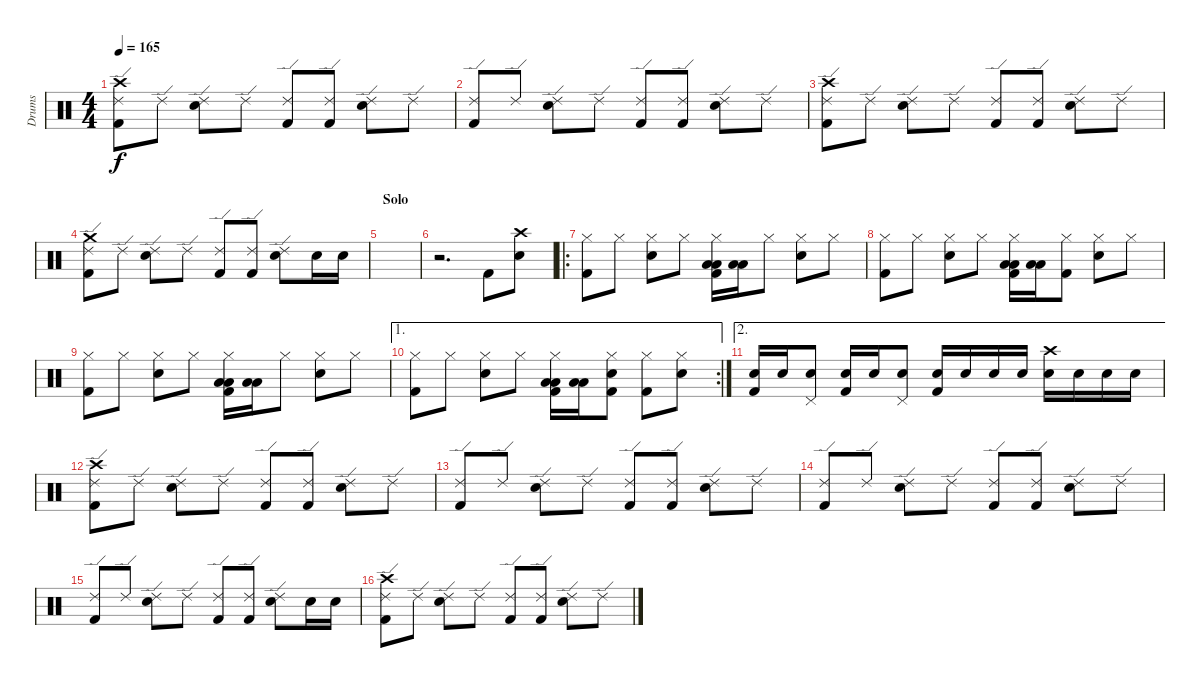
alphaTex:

\track ("Drums" "Drums") {instrument percussion}
\staff {score}
\articulation defaults
\ts (4 4)
\tempo 165
\clef neutral
\ks c
("Crash high (hit)" "Ride (edge) 2" "Kick (hit) 2").8{dy f} "Ride (edge) 2".8 ("Ride (edge) 2" "Snare (hit) 2").8 "Ride (edge) 2".8 ("Ride (edge) 2" "Kick (hit) 2").8 ("Ride (edge) 2" "Kick (hit) 2").8 ("Ride (edge) 2" "Snare (hit) 2").8 "Ride (edge) 2".8 |
("Ride (edge) 2" "Kick (hit) 2").8 "Ride (edge) 2".8 ("Ride (edge) 2" "Snare (hit) 2").8 "Ride (edge) 2".8 ("Ride (edge) 2" "Kick (hit) 2").8 ("Ride (edge) 2" "Kick (hit) 2").8 ("Ride (edge) 2" "Snare (hit) 2").8 "Ride (edge) 2".8 |
("Crash high (hit)" "Ride (edge) 2" "Kick (hit) 2").8 "Ride (edge) 2".8 ("Ride (edge) 2" "Snare (hit) 2").8 "Ride (edge) 2".8 ("Ride (edge) 2" "Kick (hit) 2").8 ("Ride (edge) 2" "Kick (hit) 2").8 ("Ride (edge) 2" "Snare (hit) 2").8 "Ride (edge) 2".8 |
("Crash medium (hit)" "Ride (edge) 2" "Kick (hit) 2").8 "Ride (edge) 2".8 ("Ride (edge) 2" "Snare (hit) 2").8 "Ride (edge) 2".8 ("Ride (edge) 2" "Kick (hit) 2").8 ("Ride (edge) 2" "Kick (hit) 2").8 ("Ride (edge) 2" "Snare (hit) 2").8 "Snare (hit) 2".16 "Snare (hit) 2".16 |
\section ("" "Solo ")
|
r.2{d} "Kick (hit) 2".8 ("Crash high (hit)" "Snare (hit) 2").8 |
\ro
("Hi-Hat (closed)" "Kick (hit) 2").8 "Hi-Hat (closed)".8 ("Hi-Hat (closed)" "Snare (hit) 2").8 "Hi-Hat (closed)".8 ("Hi-Hat (closed)" "Low Tom (hit)" "Low Tom (hit)" "Kick (hit) 2").16 ("Low Tom (hit)" "Low Tom (hit)").16 "Hi-Hat (closed)".8 ("Hi-Hat (closed)" "Snare (hit) 2").8 "Hi-Hat (closed)".8 |
("Hi-Hat (closed)" "Kick (hit) 2").8 "Hi-Hat (closed)".8 ("Hi-Hat (closed)" "Snare (hit) 2").8 "Hi-Hat (closed)".8 ("Hi-Hat (closed)" "Low Tom (hit)" "Low Tom (hit)" "Kick (hit) 2").16 ("Low Tom (hit)" "Low Tom (hit)").16 ("Hi-Hat (closed)" "Kick (hit) 2").8 ("Hi-Hat (closed)" "Snare (hit) 2").8 "Hi-Hat (closed)".8 |
("Hi-Hat (closed)" "Kick (hit) 2").8 "Hi-Hat (closed)".8 ("Hi-Hat (closed)" "Snare (hit) 2").8 "Hi-Hat (closed)".8 ("Hi-Hat (closed)" "Low Tom (hit)" "Low Tom (hit)" "Kick (hit) 2").16 ("Low Tom (hit)" "Low Tom (hit)").16 "Hi-Hat (closed)".8 ("Hi-Hat (closed)" "Snare (hit) 2").8 "Hi-Hat (closed)".8 |
\ae 1
\rc 2
("Hi-Hat (closed)" "Kick (hit) 2").8 "Hi-Hat (closed)".8 ("Hi-Hat (closed)" "Snare (hit) 2").8 "Hi-Hat (closed)".8 ("Hi-Hat (closed)" "Low Tom (hit)" "Low Tom (hit)" "Kick (hit) 2").16 ("Low Tom (hit)" "Low Tom (hit)").16 ("Hi-Hat (closed)" "Snare (hit) 2" "Kick (hit) 2").8 ("Hi-Hat (closed)" "Kick (hit) 2").8 ("Hi-Hat (closed)" "Snare (hit) 2").8 |
\ae 2
("Snare (hit) 2" "Kick (hit) 2").16 "Snare (hit) 2".16 ("Pedal Hi-Hat (hit)" "Snare (hit) 2").8 ("Snare (hit) 2" "Kick (hit) 2").16 "Snare (hit) 2".16 ("Pedal Hi-Hat (hit)" "Snare (hit) 2").8 ("Snare (hit) 2" "Kick (hit) 2").16 "Snare (hit) 2".16 "Snare (hit) 2".16 "Snare (hit) 2".16 ("Crash high (hit)" "Snare (hit) 2").16 "Snare (hit) 2".16 "Snare (hit) 2".16 "Snare (hit) 2".16 |
("Crash high (hit)" "Ride (edge) 2" "Kick (hit) 2").8 "Ride (edge) 2".8 ("Ride (edge) 2" "Snare (hit) 2").8 "Ride (edge) 2".8 ("Ride (edge) 2" "Kick (hit) 2").8 ("Ride (edge) 2" "Kick (hit) 2").8 ("Ride (edge) 2" "Snare (hit) 2").8 "Ride (edge) 2".8 |
("Ride (edge) 2" "Kick (hit) 2").8 "Ride (edge) 2".8 ("Ride (edge) 2" "Snare (hit) 2").8 "Ride (edge) 2".8 ("Ride (edge) 2" "Kick (hit) 2").8 ("Ride (edge) 2" "Kick (hit) 2").8 ("Ride (edge) 2" "Snare (hit) 2").8 "Ride (edge) 2".8 |
("Ride (edge) 2" "Kick (hit) 2").8 "Ride (edge) 2".8 ("Ride (edge) 2" "Snare (hit) 2").8 "Ride (edge) 2".8 ("Ride (edge) 2" "Kick (hit) 2").8 ("Ride (edge) 2" "Kick (hit) 2").8 ("Ride (edge) 2" "Snare (hit) 2").8 "Ride (edge) 2".8 |
("Ride (edge) 2" "Kick (hit) 2").8 "Ride (edge) 2".8 ("Ride (edge) 2" "Snare (hit) 2").8 "Ride (edge) 2".8 ("Ride (edge) 2" "Kick (hit) 2").8 ("Ride (edge) 2" "Kick (hit) 2").8 ("Ride (edge) 2" "Snare (hit) 2").8 "Snare (hit) 2".16 "Snare (hit) 2".16 |
("Crash high (hit)" "Ride (edge) 2" "Kick (hit) 2").8 "Ride (edge) 2".8 ("Ride (edge) 2" "Snare (hit) 2").8 "Ride (edge) 2".8 ("Ride (edge) 2" "Kick (hit) 2").8 ("Ride (edge) 2" "Kick (hit) 2").8 ("Ride (edge) 2" "Snare (hit) 2").8 "Ride (edge) 2".8
